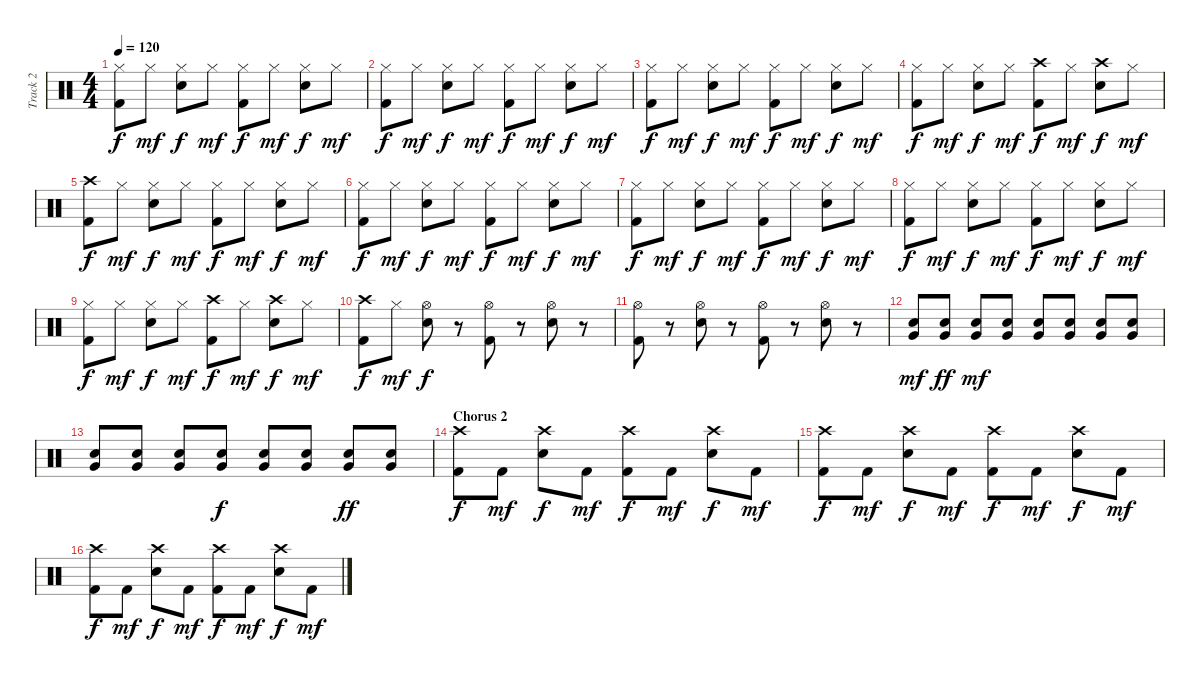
\track ("Track 2" "Track 2") {instrument percussion}
\staff {score}
\articulation defaults
\ts (4 4)
\tempo 120
\clef neutral
\ks c
("Hi-Hat (closed)" "Kick (hit) 2").8{dy f} "Hi-Hat (closed)".8{dy mf} ("Hi-Hat (closed)" "Electric Snare (hit)").8{dy f} "Hi-Hat (closed)".8{dy mf} ("Hi-Hat (closed)" "Kick (hit) 2").8{dy f} "Hi-Hat (closed)".8{dy mf} ("Hi-Hat (closed)" "Electric Snare (hit)").8{dy f} "Hi-Hat (closed)".8{dy mf} |
("Hi-Hat (closed)" "Kick (hit) 2").8{dy f} "Hi-Hat (closed)".8{dy mf} ("Hi-Hat (closed)" "Electric Snare (hit)").8{dy f} "Hi-Hat (closed)".8{dy mf} ("Hi-Hat (closed)" "Kick (hit) 2").8{dy f} "Hi-Hat (closed)".8{dy mf} ("Hi-Hat (closed)" "Electric Snare (hit)").8{dy f} "Hi-Hat (closed)".8{dy mf} |
("Hi-Hat (closed)" "Kick (hit) 2").8{dy f} "Hi-Hat (closed)".8{dy mf} ("Hi-Hat (closed)" "Electric Snare (hit)").8{dy f} "Hi-Hat (closed)".8{dy mf} ("Hi-Hat (closed)" "Kick (hit) 2").8{dy f} "Hi-Hat (closed)".8{dy mf} ("Hi-Hat (closed)" "Electric Snare (hit)").8{dy f} "Hi-Hat (closed)".8{dy mf} |
("Hi-Hat (closed)" "Kick (hit) 2").8{dy f} "Hi-Hat (closed)".8{dy mf} ("Hi-Hat (closed)" "Electric Snare (hit)").8{dy f} "Hi-Hat (closed)".8{dy mf} ("Crash high (hit)" "Kick (hit) 2").8{dy f} "Hi-Hat (closed)".8{dy mf} ("Crash high (hit)" "Electric Snare (hit)").8{dy f} "Hi-Hat (closed)".8{dy mf} |
("Crash high (hit)" "Kick (hit) 2").8{dy f} "Hi-Hat (closed)".8{dy mf} ("Hi-Hat (closed)" "Electric Snare (hit)").8{dy f} "Hi-Hat (closed)".8{dy mf} ("Hi-Hat (closed)" "Kick (hit) 2").8{dy f} "Hi-Hat (closed)".8{dy mf} ("Hi-Hat (closed)" "Electric Snare (hit)").8{dy f} "Hi-Hat (closed)".8{dy mf} |
("Hi-Hat (closed)" "Kick (hit) 2").8{dy f} "Hi-Hat (closed)".8{dy mf} ("Hi-Hat (closed)" "Electric Snare (hit)").8{dy f} "Hi-Hat (closed)".8{dy mf} ("Hi-Hat (closed)" "Kick (hit) 2").8{dy f} "Hi-Hat (closed)".8{dy mf} ("Hi-Hat (closed)" "Electric Snare (hit)").8{dy f} "Hi-Hat (closed)".8{dy mf} |
("Hi-Hat (closed)" "Kick (hit) 2").8{dy f} "Hi-Hat (closed)".8{dy mf} ("Hi-Hat (closed)" "Electric Snare (hit)").8{dy f} "Hi-Hat (closed)".8{dy mf} ("Hi-Hat (closed)" "Kick (hit) 2").8{dy f} "Hi-Hat (closed)".8{dy mf} ("Hi-Hat (closed)" "Electric Snare (hit)").8{dy f} "Hi-Hat (closed)".8{dy mf} |
("Hi-Hat (closed)" "Kick (hit) 2").8{dy f} "Hi-Hat (closed)".8{dy mf} ("Hi-Hat (closed)" "Electric Snare (hit)").8{dy f} "Hi-Hat (closed)".8{dy mf} ("Hi-Hat (closed)" "Kick (hit) 2").8{dy f} "Hi-Hat (closed)".8{dy mf} ("Hi-Hat (closed)" "Electric Snare (hit)").8{dy f} "Hi-Hat (closed)".8{dy mf} |
("Hi-Hat (closed)" "Kick (hit) 2").8{dy f} "Hi-Hat (closed)".8{dy mf} ("Hi-Hat (closed)" "Electric Snare (hit)").8{dy f} "Hi-Hat (closed)".8{dy mf} ("Crash high (hit)" "Kick (hit) 2").8{dy f} "Hi-Hat (closed)".8{dy mf} ("Crash high (hit)" "Electric Snare (hit)").8{dy f} "Hi-Hat (closed)".8{dy mf} |
("Crash high (hit)" "Kick (hit) 2").8{dy f} "Hi-Hat (closed)".8{dy mf} ("Hi-Hat (open)" "Electric Snare (hit)").8{dy f} r.8 ("Hi-Hat (open)" "Kick (hit) 2").8 r.8 ("Hi-Hat (open)" "Electric Snare (hit)").8 r.8 |
("Hi-Hat (open)" "Kick (hit) 2").8 r.8 ("Hi-Hat (open)" "Electric Snare (hit)").8 r.8 ("Hi-Hat (open)" "Kick (hit) 2").8 r.8 ("Hi-Hat (open)" "Electric Snare (hit)").8 r.8 |
("Electric Snare (hit)" "Very Low Tom (hit)").8{dy mf} ("Electric Snare (hit)" "Very Low Tom (hit)").8{dy ff} ("Electric Snare (hit)" "Very Low Tom (hit)").8{dy mf} ("Electric Snare (hit)" "Very Low Tom (hit)").8 ("Electric Snare (hit)" "Very Low Tom (hit)").8 ("Electric Snare (hit)" "Very Low Tom (hit)").8 ("Electric Snare (hit)" "Very Low Tom (hit)").8 ("Electric Snare (hit)" "Very Low Tom (hit)").8 |
("Electric Snare (hit)" "Very Low Tom (hit)").8 ("Electric Snare (hit)" "Very Low Tom (hit)").8 ("Electric Snare (hit)" "Very Low Tom (hit)").8 ("Electric Snare (hit)" "Very Low Tom (hit)").8{dy f} ("Electric Snare (hit)" "Very Low Tom (hit)").8 ("Electric Snare (hit)" "Very Low Tom (hit)").8 ("Electric Snare (hit)" "Very Low Tom (hit)").8{dy ff} ("Electric Snare (hit)" "Very Low Tom (hit)").8 |
\section ("" "Chorus 2")
("Crash high (hit)" "Kick (hit) 2").8{dy f} "Kick (hit) 2".8{dy mf} ("Crash high (hit)" "Electric Snare (hit)").8{dy f} "Kick (hit) 2".8{dy mf} ("Crash high (hit)" "Kick (hit) 2").8{dy f} "Kick (hit) 2".8{dy mf} ("Crash high (hit)" "Electric Snare (hit)").8{dy f} "Kick (hit) 2".8{dy mf} |
("Crash high (hit)" "Kick (hit) 2").8{dy f} "Kick (hit) 2".8{dy mf} ("Crash high (hit)" "Electric Snare (hit)").8{dy f} "Kick (hit) 2".8{dy mf} ("Crash high (hit)" "Kick (hit) 2").8{dy f} "Kick (hit) 2".8{dy mf} ("Crash high (hit)" "Electric Snare (hit)").8{dy f} "Kick (hit) 2".8{dy mf} |
("Crash high (hit)" "Kick (hit) 2").8{dy f} "Kick (hit) 2".8{dy mf} ("Crash high (hit)" "Electric Snare (hit)").8{dy f} "Kick (hit) 2".8{dy mf} ("Crash high (hit)" "Kick (hit) 2").8{dy f} "Kick (hit) 2".8{dy mf} ("Crash high (hit)" "Electric Snare (hit)").8{dy f} "Kick (hit) 2".8{dy mf}
